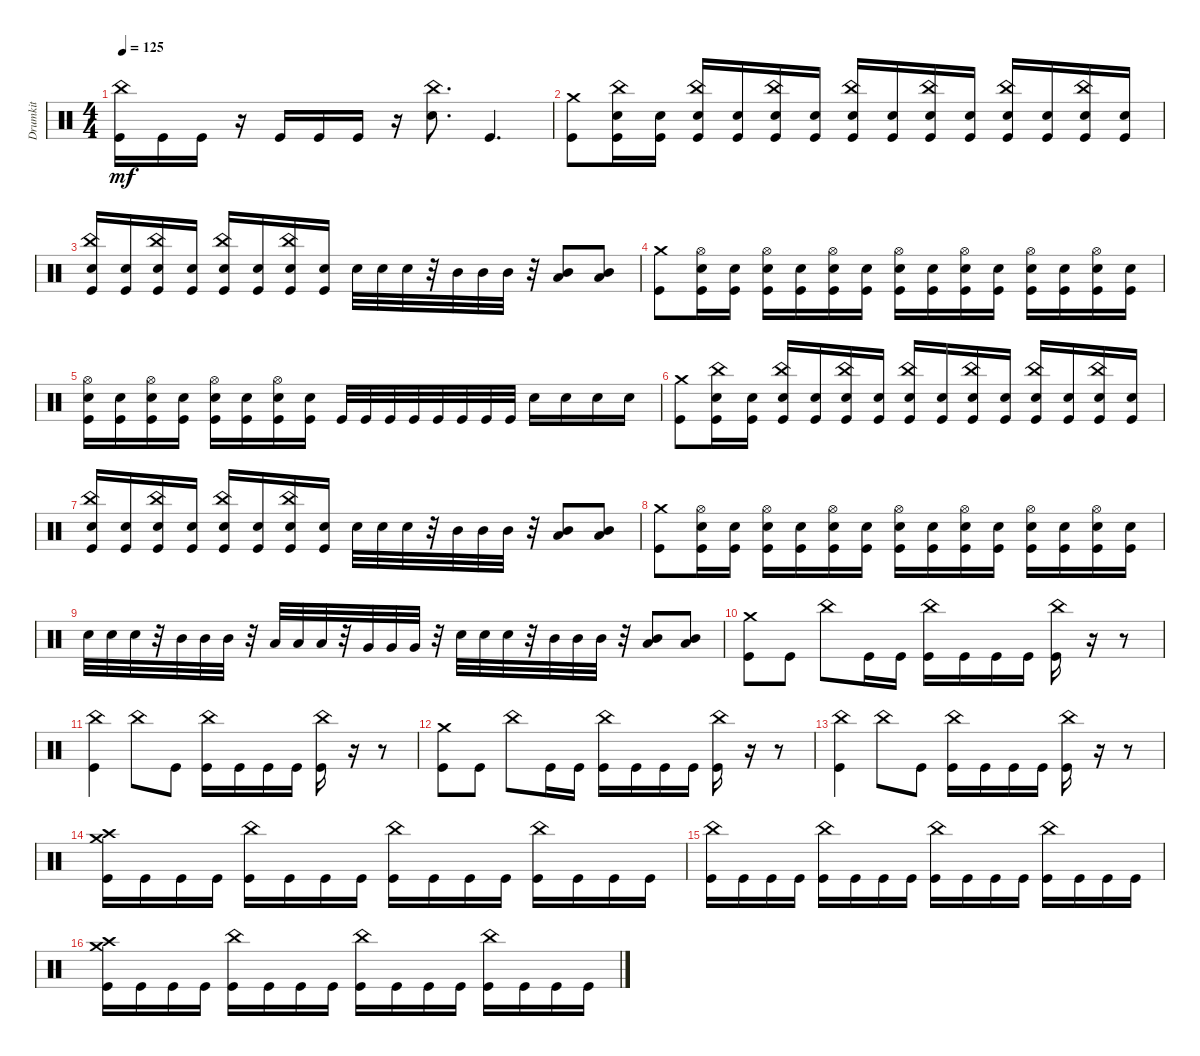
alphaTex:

\track ("Drumkit" "Drumkit") {instrument percussion}
\staff {score}
\articulation defaults
\ts (4 4)
\tempo 125
\clef neutral
\ks c
("Kick (hit)" "China (hit)").16{dy mf} "Kick (hit)".16 "Kick (hit)".16 r.16 "Kick (hit)".16 "Kick (hit)".16 "Kick (hit)".16 r.16 ("Snare (hit) 2" "China (hit)").8{d} "Kick (hit)".4{d} |
("Kick (hit)" "Crash medium (hit)").8 ("Kick (hit)" "Snare (hit) 2" "China (hit)").16 ("Kick (hit)" "Snare (hit) 2").16 ("Kick (hit)" "Snare (hit) 2" "China (hit)").16 ("Kick (hit)" "Snare (hit) 2").16 ("Kick (hit)" "Snare (hit) 2" "China (hit)").16 ("Kick (hit)" "Snare (hit) 2").16 ("Kick (hit)" "Snare (hit) 2" "China (hit)").16 ("Kick (hit)" "Snare (hit) 2").16 ("Kick (hit)" "Snare (hit) 2" "China (hit)").16 ("Kick (hit)" "Snare (hit) 2").16 ("Kick (hit)" "Snare (hit) 2" "China (hit)").16 ("Kick (hit)" "Snare (hit) 2").16 ("Kick (hit)" "Snare (hit) 2" "China (hit)").16 ("Kick (hit)" "Snare (hit) 2").16 |
("Kick (hit)" "Snare (hit) 2" "China (hit)").16 ("Kick (hit)" "Snare (hit) 2").16 ("Kick (hit)" "Snare (hit) 2" "China (hit)").16 ("Kick (hit)" "Snare (hit) 2").16 ("Kick (hit)" "Snare (hit) 2" "China (hit)").16 ("Kick (hit)" "Snare (hit) 2").16 ("Kick (hit)" "Snare (hit) 2" "China (hit)").16 ("Kick (hit)" "Snare (hit) 2").16 "Snare (hit) 2".32 "Snare (hit) 2".32 "Snare (hit) 2".32 r.32 "Mid Tom (hit)".32 "Mid Tom (hit)".32 "Mid Tom (hit)".32 r.32 ("Mid Tom (hit)" "Low Floor Tom (hit)").8 ("Mid Tom (hit)" "Low Floor Tom (hit)").8 |
("Kick (hit)" "Crash medium (hit)").8 ("Kick (hit)" "Snare (hit) 2" "Hi-Hat (open)").16 ("Kick (hit)" "Snare (hit) 2").16 ("Kick (hit)" "Snare (hit) 2" "Hi-Hat (open)").16 ("Kick (hit)" "Snare (hit) 2").16 ("Kick (hit)" "Snare (hit) 2" "Hi-Hat (open)").16 ("Kick (hit)" "Snare (hit) 2").16 ("Kick (hit)" "Snare (hit) 2" "Hi-Hat (open)").16 ("Kick (hit)" "Snare (hit) 2").16 ("Kick (hit)" "Snare (hit) 2" "Hi-Hat (open)").16 ("Kick (hit)" "Snare (hit) 2").16 ("Kick (hit)" "Snare (hit) 2" "Hi-Hat (open)").16 ("Kick (hit)" "Snare (hit) 2").16 ("Kick (hit)" "Snare (hit) 2" "Hi-Hat (open)").16 ("Kick (hit)" "Snare (hit) 2").16 |
("Kick (hit)" "Snare (hit) 2" "Hi-Hat (open)").16 ("Kick (hit)" "Snare (hit) 2").16 ("Kick (hit)" "Snare (hit) 2" "Hi-Hat (open)").16 ("Kick (hit)" "Snare (hit) 2").16 ("Kick (hit)" "Snare (hit) 2" "Hi-Hat (open)").16 ("Kick (hit)" "Snare (hit) 2").16 ("Kick (hit)" "Snare (hit) 2" "Hi-Hat (open)").16 ("Kick (hit)" "Snare (hit) 2").16 "Kick (hit)".32 "Kick (hit)".32 "Kick (hit)".32 "Kick (hit)".32 "Kick (hit)".32 "Kick (hit)".32 "Kick (hit)".32 "Kick (hit)".32 "Snare (hit) 2".16 "Snare (hit) 2".16 "Snare (hit) 2".16 "Snare (hit) 2".16 |
("Kick (hit)" "Crash medium (hit)").8 ("Kick (hit)" "Snare (hit) 2" "China (hit)").16 ("Kick (hit)" "Snare (hit) 2").16 ("Kick (hit)" "Snare (hit) 2" "China (hit)").16 ("Kick (hit)" "Snare (hit) 2").16 ("Kick (hit)" "Snare (hit) 2" "China (hit)").16 ("Kick (hit)" "Snare (hit) 2").16 ("Kick (hit)" "Snare (hit) 2" "China (hit)").16 ("Kick (hit)" "Snare (hit) 2").16 ("Kick (hit)" "Snare (hit) 2" "China (hit)").16 ("Kick (hit)" "Snare (hit) 2").16 ("Kick (hit)" "Snare (hit) 2" "China (hit)").16 ("Kick (hit)" "Snare (hit) 2").16 ("Kick (hit)" "Snare (hit) 2" "China (hit)").16 ("Kick (hit)" "Snare (hit) 2").16 |
("Kick (hit)" "Snare (hit) 2" "China (hit)").16 ("Kick (hit)" "Snare (hit) 2").16 ("Kick (hit)" "Snare (hit) 2" "China (hit)").16 ("Kick (hit)" "Snare (hit) 2").16 ("Kick (hit)" "Snare (hit) 2" "China (hit)").16 ("Kick (hit)" "Snare (hit) 2").16 ("Kick (hit)" "Snare (hit) 2" "China (hit)").16 ("Kick (hit)" "Snare (hit) 2").16 "Snare (hit) 2".32 "Snare (hit) 2".32 "Snare (hit) 2".32 r.32 "Mid Tom (hit)".32 "Mid Tom (hit)".32 "Mid Tom (hit)".32 r.32 ("Mid Tom (hit)" "Low Floor Tom (hit)").8 ("Mid Tom (hit)" "Low Floor Tom (hit)").8 |
("Kick (hit)" "Crash medium (hit)").8 ("Kick (hit)" "Snare (hit) 2" "Hi-Hat (open)").16 ("Kick (hit)" "Snare (hit) 2").16 ("Kick (hit)" "Snare (hit) 2" "Hi-Hat (open)").16 ("Kick (hit)" "Snare (hit) 2").16 ("Kick (hit)" "Snare (hit) 2" "Hi-Hat (open)").16 ("Kick (hit)" "Snare (hit) 2").16 ("Kick (hit)" "Snare (hit) 2" "Hi-Hat (open)").16 ("Kick (hit)" "Snare (hit) 2").16 ("Kick (hit)" "Snare (hit) 2" "Hi-Hat (open)").16 ("Kick (hit)" "Snare (hit) 2").16 ("Kick (hit)" "Snare (hit) 2" "Hi-Hat (open)").16 ("Kick (hit)" "Snare (hit) 2").16 ("Kick (hit)" "Snare (hit) 2" "Hi-Hat (open)").16 ("Kick (hit)" "Snare (hit) 2").16 |
"Snare (hit) 2".32 "Snare (hit) 2".32 "Snare (hit) 2".32 r.32 "Mid Tom (hit)".32 "Mid Tom (hit)".32 "Mid Tom (hit)".32 r.32 "Low Tom (hit)".32 "Low Tom (hit)".32 "Low Tom (hit)".32 r.32 "Very Low Tom (hit)".32 "Very Low Tom (hit)".32 "Very Low Tom (hit)".32 r.32 "Snare (hit) 2".32 "Snare (hit) 2".32 "Snare (hit) 2".32 r.32 "Mid Tom (hit)".32 "Mid Tom (hit)".32 "Mid Tom (hit)".32 r.32 ("Low Floor Tom (hit)" "Mid Tom (hit)").8 ("Low Floor Tom (hit)" "Mid Tom (hit)").8 |
("Kick (hit)" "Crash medium (hit)").8 "Kick (hit)".8 "China (hit)".8 "Kick (hit)".16 "Kick (hit)".16 ("Kick (hit)" "China (hit)").16 "Kick (hit)".16 "Kick (hit)".16 "Kick (hit)".16 ("Kick (hit)" "China (hit)").16 r.16 r.8 |
("Kick (hit)" "China (hit)").4 "China (hit)".8 "Kick (hit)".8 ("Kick (hit)" "China (hit)").16 "Kick (hit)".16 "Kick (hit)".16 "Kick (hit)".16 ("Kick (hit)" "China (hit)").16 r.16 r.8 |
("Kick (hit)" "Crash medium (hit)").8 "Kick (hit)".8 "China (hit)".8 "Kick (hit)".16 "Kick (hit)".16 ("Kick (hit)" "China (hit)").16 "Kick (hit)".16 "Kick (hit)".16 "Kick (hit)".16 ("Kick (hit)" "China (hit)").16 r.16 r.8 |
("Kick (hit)" "China (hit)").4 "China (hit)".8 "Kick (hit)".8 ("Kick (hit)" "China (hit)").16 "Kick (hit)".16 "Kick (hit)".16 "Kick (hit)".16 ("Kick (hit)" "China (hit)").16 r.16 r.8 |
("Kick (hit)" "Crash medium (hit)" "Crash high (hit)").16 "Kick (hit)".16 "Kick (hit)".16 "Kick (hit)".16 ("Kick (hit)" "China (hit)").16 "Kick (hit)".16 "Kick (hit)".16 "Kick (hit)".16 ("Kick (hit)" "China (hit)").16 "Kick (hit)".16 "Kick (hit)".16 "Kick (hit)".16 ("Kick (hit)" "China (hit)").16 "Kick (hit)".16 "Kick (hit)".16 "Kick (hit)".16 |
("Kick (hit)" "China (hit)").16 "Kick (hit)".16 "Kick (hit)".16 "Kick (hit)".16 ("Kick (hit)" "China (hit)").16 "Kick (hit)".16 "Kick (hit)".16 "Kick (hit)".16 ("Kick (hit)" "China (hit)").16 "Kick (hit)".16 "Kick (hit)".16 "Kick (hit)".16 ("Kick (hit)" "China (hit)").16 "Kick (hit)".16 "Kick (hit)".16 "Kick (hit)".16 |
("Kick (hit)" "Crash medium (hit)" "Crash high (hit)").16 "Kick (hit)".16 "Kick (hit)".16 "Kick (hit)".16 ("Kick (hit)" "China (hit)").16 "Kick (hit)".16 "Kick (hit)".16 "Kick (hit)".16 ("Kick (hit)" "China (hit)").16 "Kick (hit)".16 "Kick (hit)".16 "Kick (hit)".16 ("Kick (hit)" "China (hit)").16 "Kick (hit)".16 "Kick (hit)".16 "Kick (hit)".16
